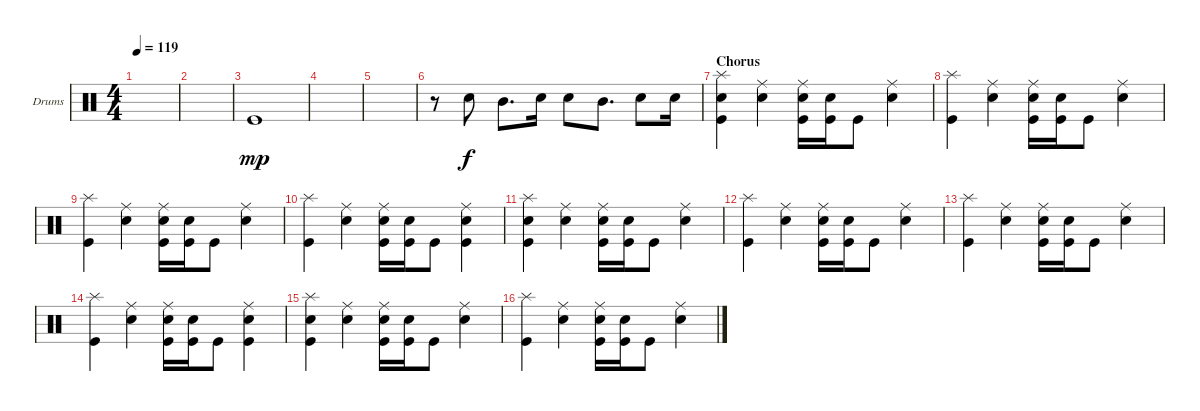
\defaultSystemsLayout 4
\bracketExtendMode groupsimilarinstruments
\firstSystemTrackNameOrientation horizontal
\otherSystemsTrackNameOrientation horizontal
\track ("Drumkit" "Drums") {instrument percussion}
\staff {score}
\articulation defaults
\ts (4 4)
\tempo 119
\clef neutral
\ks c
|
|
"Kick (hit)".1{dy mp} |
|
|
r.8 "Snare (hit) 2".8{dy f} "Mid Tom (hit)".8{d} "Snare (hit) 2".16 "Snare (hit) 2".8 "Mid Tom (hit)".8{d} "Snare (hit) 2".8 "Snare (hit) 2".16 |
\section ("" "Chorus")
("Kick (hit)" "Splash (hit)" "Snare (hit) 2").4 ("Snare (hit) 2" "Ride (middle)").4 ("Kick (hit)" "Snare (hit) 2" "Ride (middle)").16 ("Kick (hit)" "Snare (hit) 2").16 "Kick (hit)".8 ("Snare (hit) 2" "Ride (middle)").4 |
("Kick (hit)" "Splash (hit)").4 ("Snare (hit) 2" "Ride (middle)").4 ("Kick (hit)" "Snare (hit) 2" "Ride (middle)").16 ("Kick (hit)" "Snare (hit) 2").16 "Kick (hit)".8 ("Snare (hit) 2" "Ride (middle)").4 |
("Kick (hit)" "Splash (hit)").4 ("Snare (hit) 2" "Ride (middle)").4 ("Kick (hit)" "Snare (hit) 2" "Ride (middle)").16 ("Kick (hit)" "Snare (hit) 2").16 "Kick (hit)".8 ("Snare (hit) 2" "Ride (middle)").4 |
("Kick (hit)" "Splash (hit)").4 ("Snare (hit) 2" "Ride (middle)").4 ("Kick (hit)" "Snare (hit) 2" "Ride (middle)").16 ("Kick (hit)" "Snare (hit) 2").16 "Kick (hit)".8 ("Snare (hit) 2" "Ride (middle)" "Kick (hit)").4 |
("Kick (hit)" "Splash (hit)" "Snare (hit) 2").4 ("Snare (hit) 2" "Ride (middle)").4 ("Kick (hit)" "Snare (hit) 2" "Ride (middle)").16 ("Kick (hit)" "Snare (hit) 2").16 "Kick (hit)".8 ("Snare (hit) 2" "Ride (middle)").4 |
("Kick (hit)" "Splash (hit)").4 ("Snare (hit) 2" "Ride (middle)").4 ("Kick (hit)" "Snare (hit) 2" "Ride (middle)").16 ("Kick (hit)" "Snare (hit) 2").16 "Kick (hit)".8 ("Snare (hit) 2" "Ride (middle)").4 |
("Kick (hit)" "Splash (hit)").4 ("Snare (hit) 2" "Ride (middle)").4 ("Kick (hit)" "Snare (hit) 2" "Ride (middle)").16 ("Kick (hit)" "Snare (hit) 2").16 "Kick (hit)".8 ("Snare (hit) 2" "Ride (middle)").4 |
("Kick (hit)" "Splash (hit)").4 ("Snare (hit) 2" "Ride (middle)").4 ("Kick (hit)" "Snare (hit) 2" "Ride (middle)").16 ("Kick (hit)" "Snare (hit) 2").16 "Kick (hit)".8 ("Snare (hit) 2" "Ride (middle)" "Kick (hit)").4 |
("Kick (hit)" "Splash (hit)" "Snare (hit) 2").4 ("Snare (hit) 2" "Ride (middle)").4 ("Kick (hit)" "Snare (hit) 2" "Ride (middle)").16 ("Kick (hit)" "Snare (hit) 2").16 "Kick (hit)".8 ("Snare (hit) 2" "Ride (middle)").4 |
("Kick (hit)" "Splash (hit)").4 ("Snare (hit) 2" "Ride (middle)").4 ("Kick (hit)" "Snare (hit) 2" "Ride (middle)").16 ("Kick (hit)" "Snare (hit) 2").16 "Kick (hit)".8 ("Snare (hit) 2" "Ride (middle)").4
